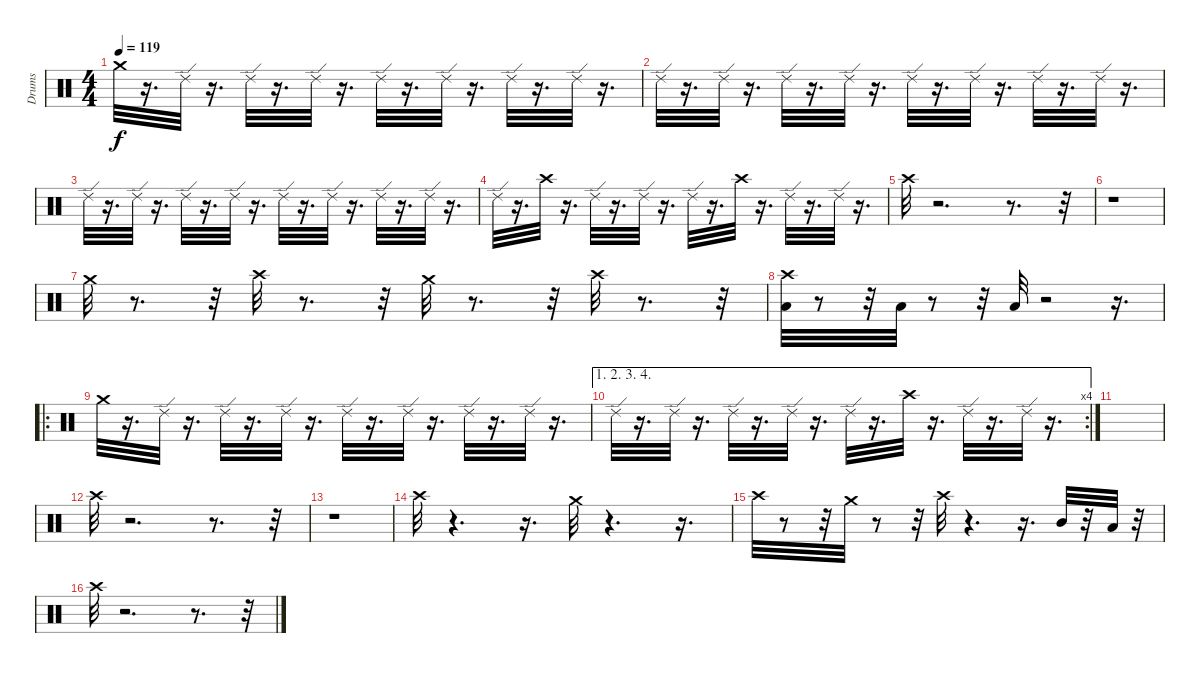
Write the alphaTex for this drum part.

\track ("Drums" "Drums") {instrument percussion}
\staff {score}
\articulation defaults
\ts (4 4)
\tempo 119
\clef neutral
\ks c "Crash medium (hit)".32{dy f}
r.16{d} "Ride (edge) 2".32 r.16{d} "Ride (edge) 2".32 r.16{d} "Ride (edge) 2".32 r.16{d} "Ride (edge) 2".32 r.16{d} "Ride (edge) 2".32 r.16{d} "Ride (edge) 2".32 r.16{d} "Ride (edge) 2".32 r.16{d} |
"Ride (edge) 2".32 r.16{d} "Ride (edge) 2".32 r.16{d} "Ride (edge) 2".32 r.16{d} "Ride (edge) 2".32 r.16{d} "Ride (edge) 2".32 r.16{d} "Ride (edge) 2".32 r.16{d} "Ride (edge) 2".32 r.16{d} "Ride (edge) 2".32 r.16{d} |
"Ride (edge) 2".32 r.16{d} "Ride (edge) 2".32 r.16{d} "Ride (edge) 2".32 r.16{d} "Ride (edge) 2".32 r.16{d} "Ride (edge) 2".32 r.16{d} "Ride (edge) 2".32 r.16{d} "Ride (edge) 2".32 r.16{d} "Ride (edge) 2".32 r.16{d} |
"Ride (edge) 2".32 r.16{d} "Crash high (hit)".32 r.16{d} "Ride (edge) 2".32 r.16{d} "Ride (edge) 2".32 r.16{d} "Ride (edge) 2".32 r.16{d} "Crash high (hit)".32 r.16{d} "Ride (edge) 2".32 r.16{d} "Ride (edge) 2".32 r.16{d} |
"Crash high (hit)".32 r.2{d} r.8{d} r.32 |
r.1 |
"Crash medium (hit)".32 r.8{d} r.32 "Crash high (hit)".32 r.8{d} r.32 "Crash medium (hit)".32 r.8{d} r.32 "Crash high (hit)".32 r.8{d} r.32 |
("Crash high (hit)" "Low Tom (hit)").32 r.8 r.32 "Low Tom (hit)".32 r.8 r.32 "Low Tom (hit)".32 r.2 r.16{d} |
\ro "Crash medium (hit)".32
r.16{d} "Ride (edge) 2".32 r.16{d} "Ride (edge) 2".32 r.16{d} "Ride (edge) 2".32 r.16{d} "Ride (edge) 2".32 r.16{d} "Ride (edge) 2".32 r.16{d} "Ride (edge) 2".32 r.16{d} "Ride (edge) 2".32 r.16{d} |
\ae (1 2 3 4)
\rc 4 "Ride (edge) 2".32
r.16{d} "Ride (edge) 2".32 r.16{d} "Ride (edge) 2".32 r.16{d} "Ride (edge) 2".32 r.16{d} "Ride (edge) 2".32 r.16{d} "Crash high (hit)".32 r.16{d} "Ride (edge) 2".32 r.16{d} "Ride (edge) 2".32 r.16{d} |
|
"Crash high (hit)".32 r.2{d} r.8{d} r.32 |
r.1 |
"Crash high (hit)".32 r.4{d} r.16{d} "Crash medium (hit)".32 r.4{d} r.16{d} |
"Crash high (hit)".32 r.8 r.32 "Crash medium (hit)".32 r.8 r.32 "Crash high (hit)".32 r.4{d} r.16{d} "Mid Tom (hit)".32 r.32 "Low Tom (hit)".32 r.32 |
"Crash high (hit)".32 r.2{d} r.8{d} r.32
